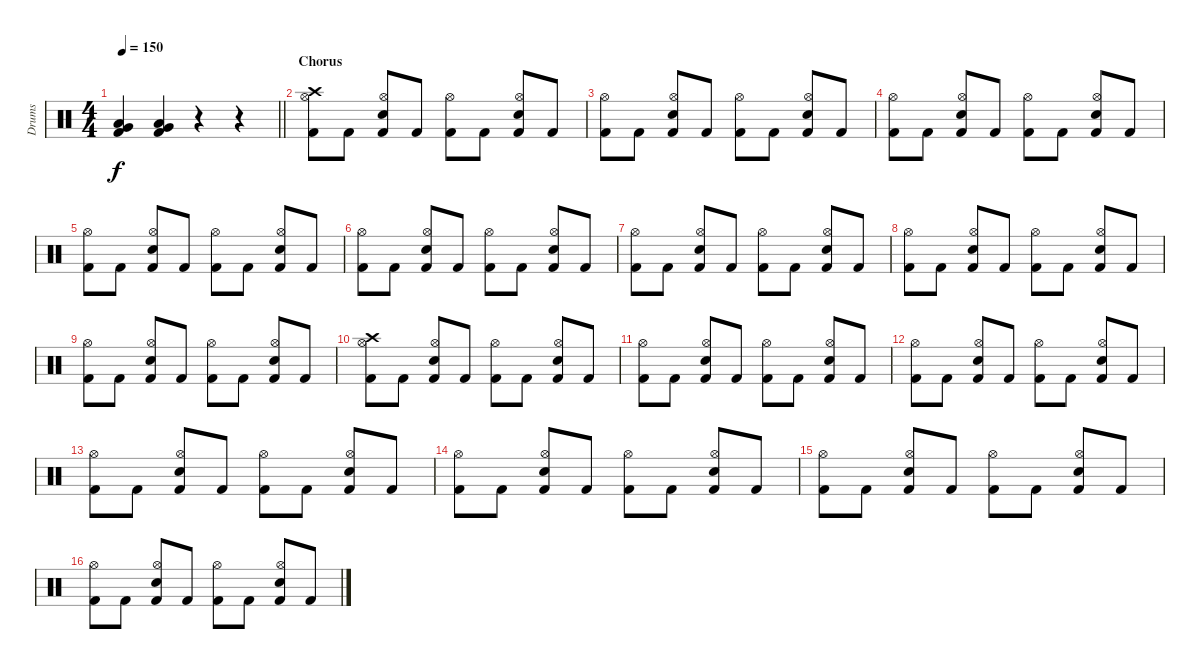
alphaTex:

\track ("Drums" "Drums") {instrument percussion}
\staff {score}
\articulation defaults
\ts (4 4)
\tempo 150
\clef neutral
\barLineRight lightlight
\ks c
("Very Low Tom (hit)" "Low Floor Tom (hit)" "Kick (hit) 2").4{dy f} ("Very Low Tom (hit)" "Low Floor Tom (hit)" "Kick (hit) 2").4 r.4 r.4 |
\section ("" "Chorus")
("Crash high (hit)" "Hi-Hat (open)" "Kick (hit) 2").8 "Kick (hit) 2".8 ("Hi-Hat (open)" "Snare (hit) 2" "Kick (hit) 2").8 "Kick (hit) 2".8 ("Hi-Hat (open)" "Kick (hit) 2").8 "Kick (hit) 2".8 ("Hi-Hat (open)" "Snare (hit) 2" "Kick (hit) 2").8 "Kick (hit) 2".8 |
("Hi-Hat (open)" "Kick (hit) 2").8 "Kick (hit) 2".8 ("Hi-Hat (open)" "Snare (hit) 2" "Kick (hit) 2").8 "Kick (hit) 2".8 ("Hi-Hat (open)" "Kick (hit) 2").8 "Kick (hit) 2".8 ("Hi-Hat (open)" "Snare (hit) 2" "Kick (hit) 2").8 "Kick (hit) 2".8 |
("Hi-Hat (open)" "Kick (hit) 2").8 "Kick (hit) 2".8 ("Hi-Hat (open)" "Snare (hit) 2" "Kick (hit) 2").8 "Kick (hit) 2".8 ("Hi-Hat (open)" "Kick (hit) 2").8 "Kick (hit) 2".8 ("Hi-Hat (open)" "Snare (hit) 2" "Kick (hit) 2").8 "Kick (hit) 2".8 |
("Hi-Hat (open)" "Kick (hit) 2").8 "Kick (hit) 2".8 ("Hi-Hat (open)" "Snare (hit) 2" "Kick (hit) 2").8 "Kick (hit) 2".8 ("Hi-Hat (open)" "Kick (hit) 2").8 "Kick (hit) 2".8 ("Hi-Hat (open)" "Snare (hit) 2" "Kick (hit) 2").8 "Kick (hit) 2".8 |
("Hi-Hat (open)" "Kick (hit) 2").8 "Kick (hit) 2".8 ("Hi-Hat (open)" "Snare (hit) 2" "Kick (hit) 2").8 "Kick (hit) 2".8 ("Hi-Hat (open)" "Kick (hit) 2").8 "Kick (hit) 2".8 ("Hi-Hat (open)" "Snare (hit) 2" "Kick (hit) 2").8 "Kick (hit) 2".8 |
("Hi-Hat (open)" "Kick (hit) 2").8 "Kick (hit) 2".8 ("Hi-Hat (open)" "Snare (hit) 2" "Kick (hit) 2").8 "Kick (hit) 2".8 ("Hi-Hat (open)" "Kick (hit) 2").8 "Kick (hit) 2".8 ("Hi-Hat (open)" "Snare (hit) 2" "Kick (hit) 2").8 "Kick (hit) 2".8 |
("Hi-Hat (open)" "Kick (hit) 2").8 "Kick (hit) 2".8 ("Hi-Hat (open)" "Snare (hit) 2" "Kick (hit) 2").8 "Kick (hit) 2".8 ("Hi-Hat (open)" "Kick (hit) 2").8 "Kick (hit) 2".8 ("Hi-Hat (open)" "Snare (hit) 2" "Kick (hit) 2").8 "Kick (hit) 2".8 |
("Hi-Hat (open)" "Kick (hit) 2").8 "Kick (hit) 2".8 ("Hi-Hat (open)" "Snare (hit) 2" "Kick (hit) 2").8 "Kick (hit) 2".8 ("Hi-Hat (open)" "Kick (hit) 2").8 "Kick (hit) 2".8 ("Hi-Hat (open)" "Snare (hit) 2" "Kick (hit) 2").8 "Kick (hit) 2".8 |
("Crash high (hit)" "Hi-Hat (open)" "Kick (hit) 2").8 "Kick (hit) 2".8 ("Hi-Hat (open)" "Snare (hit) 2" "Kick (hit) 2").8 "Kick (hit) 2".8 ("Hi-Hat (open)" "Kick (hit) 2").8 "Kick (hit) 2".8 ("Hi-Hat (open)" "Snare (hit) 2" "Kick (hit) 2").8 "Kick (hit) 2".8 |
("Hi-Hat (open)" "Kick (hit) 2").8 "Kick (hit) 2".8 ("Hi-Hat (open)" "Snare (hit) 2" "Kick (hit) 2").8 "Kick (hit) 2".8 ("Hi-Hat (open)" "Kick (hit) 2").8 "Kick (hit) 2".8 ("Hi-Hat (open)" "Snare (hit) 2" "Kick (hit) 2").8 "Kick (hit) 2".8 |
("Hi-Hat (open)" "Kick (hit) 2").8 "Kick (hit) 2".8 ("Hi-Hat (open)" "Snare (hit) 2" "Kick (hit) 2").8 "Kick (hit) 2".8 ("Hi-Hat (open)" "Kick (hit) 2").8 "Kick (hit) 2".8 ("Hi-Hat (open)" "Snare (hit) 2" "Kick (hit) 2").8 "Kick (hit) 2".8 |
("Hi-Hat (open)" "Kick (hit) 2").8 "Kick (hit) 2".8 ("Hi-Hat (open)" "Snare (hit) 2" "Kick (hit) 2").8 "Kick (hit) 2".8 ("Hi-Hat (open)" "Kick (hit) 2").8 "Kick (hit) 2".8 ("Hi-Hat (open)" "Snare (hit) 2" "Kick (hit) 2").8 "Kick (hit) 2".8 |
("Hi-Hat (open)" "Kick (hit) 2").8 "Kick (hit) 2".8 ("Hi-Hat (open)" "Snare (hit) 2" "Kick (hit) 2").8 "Kick (hit) 2".8 ("Hi-Hat (open)" "Kick (hit) 2").8 "Kick (hit) 2".8 ("Hi-Hat (open)" "Snare (hit) 2" "Kick (hit) 2").8 "Kick (hit) 2".8 |
("Hi-Hat (open)" "Kick (hit) 2").8 "Kick (hit) 2".8 ("Hi-Hat (open)" "Snare (hit) 2" "Kick (hit) 2").8 "Kick (hit) 2".8 ("Hi-Hat (open)" "Kick (hit) 2").8 "Kick (hit) 2".8 ("Hi-Hat (open)" "Snare (hit) 2" "Kick (hit) 2").8 "Kick (hit) 2".8 |
("Hi-Hat (open)" "Kick (hit) 2").8 "Kick (hit) 2".8 ("Hi-Hat (open)" "Snare (hit) 2" "Kick (hit) 2").8 "Kick (hit) 2".8 ("Hi-Hat (open)" "Kick (hit) 2").8 "Kick (hit) 2".8 ("Hi-Hat (open)" "Snare (hit) 2" "Kick (hit) 2").8 "Kick (hit) 2".8
